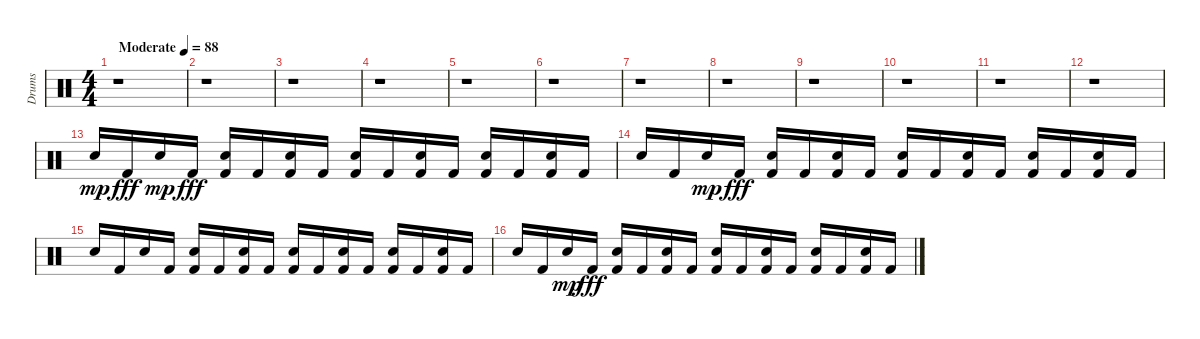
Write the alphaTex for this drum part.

\track ("Drums" "Drums") {instrument percussion}
\staff {score}
\articulation defaults
\ts (4 4)
\tempo (88 "Moderate")
\clef neutral
\ks c
r.1{dy mp} |
r.1 |
r.1 |
r.1 |
r.1 |
r.1 |
r.1 |
r.1 |
r.1 |
r.1 |
r.1 |
r.1 |
"Electric Snare (hit)".16 "Kick (hit) 2".16{dy fff} "Electric Snare (hit)".16{dy mp} "Kick (hit) 2".16{dy fff} ("Electric Snare (hit)" "Kick (hit) 2").16 "Kick (hit) 2".16 ("Electric Snare (hit)" "Kick (hit) 2").16 "Kick (hit) 2".16 ("Electric Snare (hit)" "Kick (hit) 2").16 "Kick (hit) 2".16 ("Electric Snare (hit)" "Kick (hit) 2").16 "Kick (hit) 2".16 ("Electric Snare (hit)" "Kick (hit) 2").16 "Kick (hit) 2".16 ("Electric Snare (hit)" "Kick (hit) 2").16 "Kick (hit) 2".16 |
"Electric Snare (hit)".16 "Kick (hit) 2".16 "Electric Snare (hit)".16{dy mp} "Kick (hit) 2".16{dy fff} ("Electric Snare (hit)" "Kick (hit) 2").16 "Kick (hit) 2".16 ("Electric Snare (hit)" "Kick (hit) 2").16 "Kick (hit) 2".16 ("Electric Snare (hit)" "Kick (hit) 2").16 "Kick (hit) 2".16 ("Electric Snare (hit)" "Kick (hit) 2").16 "Kick (hit) 2".16 ("Electric Snare (hit)" "Kick (hit) 2").16 "Kick (hit) 2".16 ("Electric Snare (hit)" "Kick (hit) 2").16 "Kick (hit) 2".16 |
"Electric Snare (hit)".16 "Kick (hit) 2".16 "Electric Snare (hit)".16 "Kick (hit) 2".16 ("Electric Snare (hit)" "Kick (hit) 2").16 "Kick (hit) 2".16 ("Electric Snare (hit)" "Kick (hit) 2").16 "Kick (hit) 2".16 ("Electric Snare (hit)" "Kick (hit) 2").16 "Kick (hit) 2".16 ("Electric Snare (hit)" "Kick (hit) 2").16 "Kick (hit) 2".16 ("Electric Snare (hit)" "Kick (hit) 2").16 "Kick (hit) 2".16 ("Electric Snare (hit)" "Kick (hit) 2").16 "Kick (hit) 2".16 |
"Electric Snare (hit)".16 "Kick (hit) 2".16 "Electric Snare (hit)".16{dy mp} "Kick (hit) 2".16{dy fff} ("Electric Snare (hit)" "Kick (hit) 2").16 "Kick (hit) 2".16 ("Electric Snare (hit)" "Kick (hit) 2").16 "Kick (hit) 2".16 ("Electric Snare (hit)" "Kick (hit) 2").16 "Kick (hit) 2".16 ("Electric Snare (hit)" "Kick (hit) 2").16 "Kick (hit) 2".16 ("Electric Snare (hit)" "Kick (hit) 2").16 "Kick (hit) 2".16 ("Electric Snare (hit)" "Kick (hit) 2").16 "Kick (hit) 2".16
